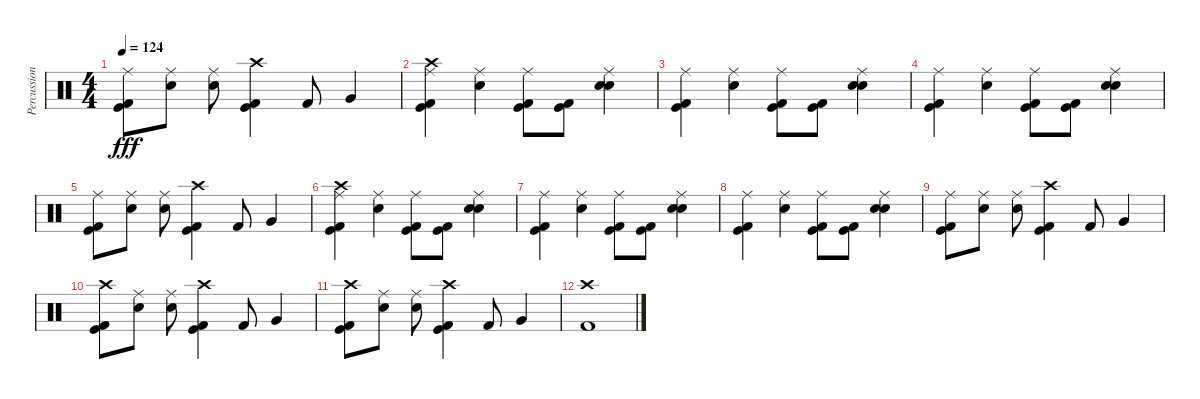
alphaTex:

\track ("Percussion" "Percussion") {instrument percussion}
\staff {score}
\articulation defaults
\ts (4 4)
\tempo 124
\clef neutral
\ks c
("Ride (middle)" "Kick (hit) 2" "Kick (hit)").8{dy fff} ("Ride (middle)" "Snare (hit) 2").8 ("Ride (middle)" "Snare (hit) 2").8 ("Crash high (hit)" "Kick (hit) 2" "Kick (hit)").4 "Kick (hit) 2".8 "Very Low Tom (hit)".4 |
("Ride (middle)" "Kick (hit) 2" "Kick (hit)" "Crash high (hit)").4 ("Ride (middle)" "Snare (hit) 2").4 ("Ride (middle)" "Kick (hit) 2" "Kick (hit)").8 ("Kick (hit) 2" "Kick (hit)").8 ("Ride (middle)" "Snare (hit) 2" "Electric Snare (hit)").4 |
("Ride (middle)" "Kick (hit) 2" "Kick (hit)").4 ("Ride (middle)" "Snare (hit) 2").4 ("Ride (middle)" "Kick (hit) 2" "Kick (hit)").8 ("Kick (hit) 2" "Kick (hit)").8 ("Ride (middle)" "Snare (hit) 2" "Electric Snare (hit)").4 |
("Ride (middle)" "Kick (hit) 2" "Kick (hit)").4 ("Ride (middle)" "Snare (hit) 2").4 ("Ride (middle)" "Kick (hit) 2" "Kick (hit)").8 ("Kick (hit) 2" "Kick (hit)").8 ("Ride (middle)" "Snare (hit) 2" "Electric Snare (hit)").4 |
("Ride (middle)" "Kick (hit) 2" "Kick (hit)").8 ("Ride (middle)" "Snare (hit) 2").8 ("Ride (middle)" "Snare (hit) 2").8 ("Crash high (hit)" "Kick (hit) 2" "Kick (hit)").4 "Kick (hit) 2".8 "Very Low Tom (hit)".4 |
("Ride (middle)" "Kick (hit) 2" "Kick (hit)" "Crash high (hit)").4 ("Ride (middle)" "Snare (hit) 2").4 ("Ride (middle)" "Kick (hit) 2" "Kick (hit)").8 ("Kick (hit) 2" "Kick (hit)").8 ("Ride (middle)" "Snare (hit) 2" "Electric Snare (hit)").4 |
("Ride (middle)" "Kick (hit) 2" "Kick (hit)").4 ("Ride (middle)" "Snare (hit) 2").4 ("Ride (middle)" "Kick (hit) 2" "Kick (hit)").8 ("Kick (hit) 2" "Kick (hit)").8 ("Ride (middle)" "Snare (hit) 2" "Electric Snare (hit)").4 |
("Ride (middle)" "Kick (hit) 2" "Kick (hit)").4 ("Ride (middle)" "Snare (hit) 2").4 ("Ride (middle)" "Kick (hit) 2" "Kick (hit)").8 ("Kick (hit) 2" "Kick (hit)").8 ("Ride (middle)" "Snare (hit) 2" "Electric Snare (hit)").4 |
("Ride (middle)" "Kick (hit) 2" "Kick (hit)").8 ("Ride (middle)" "Snare (hit) 2").8 ("Ride (middle)" "Snare (hit) 2").8 ("Crash high (hit)" "Kick (hit) 2" "Kick (hit)").4 "Kick (hit) 2".8 "Very Low Tom (hit)".4 |
("Crash high (hit)" "Kick (hit) 2" "Kick (hit)").8 ("Ride (middle)" "Snare (hit) 2").8 ("Ride (middle)" "Snare (hit) 2").8 ("Crash high (hit)" "Kick (hit) 2" "Kick (hit)").4 "Kick (hit) 2".8 "Very Low Tom (hit)".4 |
("Crash high (hit)" "Kick (hit) 2" "Kick (hit)").8 ("Ride (middle)" "Snare (hit) 2").8 ("Ride (middle)" "Snare (hit) 2").8 ("Crash high (hit)" "Kick (hit) 2" "Kick (hit)").4 "Kick (hit) 2".8 "Very Low Tom (hit)".4 |
("Crash high (hit)" "Kick (hit) 2").1
